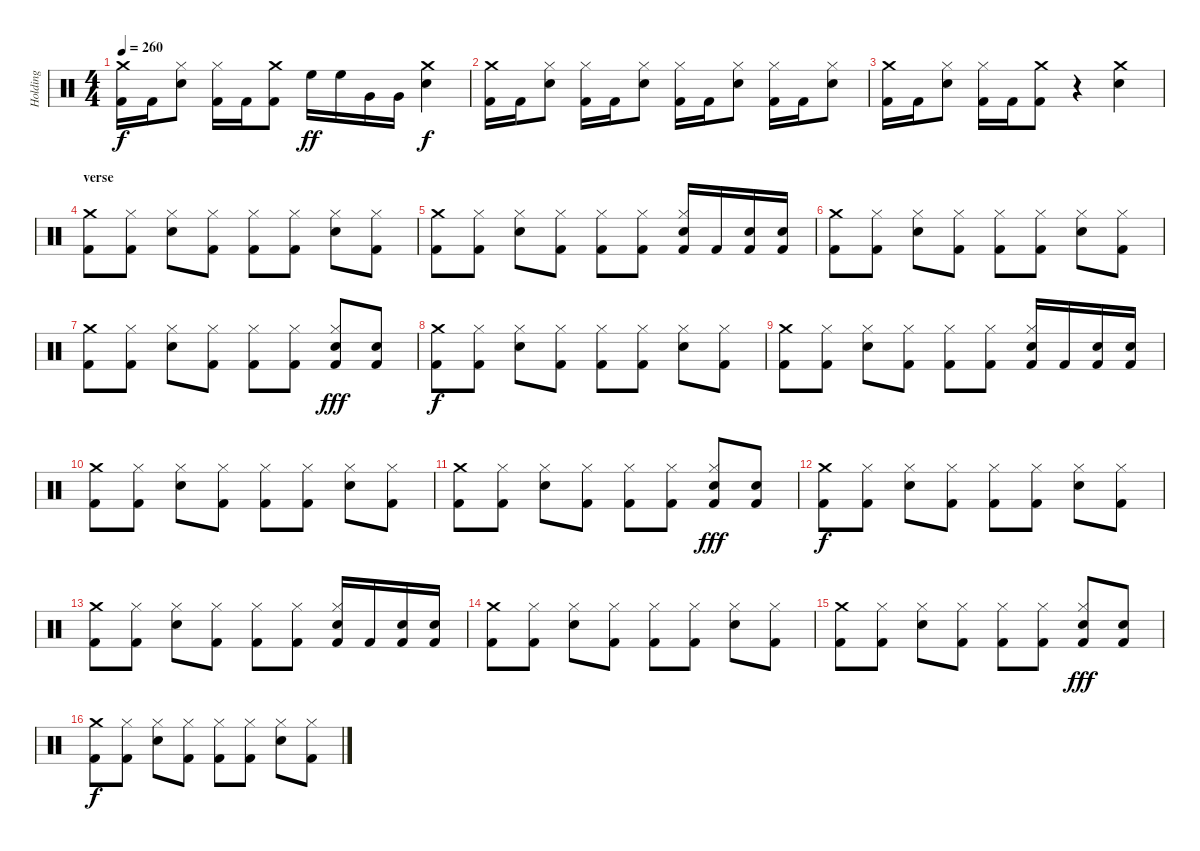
\track ("Holding" "Holding") {instrument percussion}
\staff {score}
\articulation defaults
\ts (4 4)
\tempo 260
\clef neutral
\ks c
("Crash medium (hit)" "Kick (hit) 2").16{dy f} "Kick (hit) 2".16 ("Hi-Hat (closed)" "Electric Snare (hit)").8 ("Hi-Hat (closed)" "Kick (hit) 2").16 "Kick (hit) 2".16 ("Crash medium (hit)" "Kick (hit) 2").8 "High Floor Tom (hit)".16{dy ff} "High Floor Tom (hit)".16 "Very Low Tom (hit)".16 "Very Low Tom (hit)".16 ("Crash medium (hit)" "Electric Snare (hit)").4{dy f} |
("Crash medium (hit)" "Kick (hit) 2").16 "Kick (hit) 2".16 ("Hi-Hat (closed)" "Electric Snare (hit)").8 ("Hi-Hat (closed)" "Kick (hit) 2").16 "Kick (hit) 2".16 ("Hi-Hat (closed)" "Electric Snare (hit)").8 ("Hi-Hat (closed)" "Kick (hit) 2").16 "Kick (hit) 2".16 ("Hi-Hat (closed)" "Electric Snare (hit)").8 ("Hi-Hat (closed)" "Kick (hit) 2").16 "Kick (hit) 2".16 ("Hi-Hat (closed)" "Electric Snare (hit)").8 |
("Crash medium (hit)" "Kick (hit) 2").16 "Kick (hit) 2".16 ("Hi-Hat (closed)" "Electric Snare (hit)").8 ("Hi-Hat (closed)" "Kick (hit) 2").16 "Kick (hit) 2".16 ("Crash medium (hit)" "Kick (hit) 2").8 r.4 ("Crash medium (hit)" "Electric Snare (hit)").4 |
\section ("" "verse")
("Crash medium (hit)" "Kick (hit) 2").8 ("Hi-Hat (closed)" "Kick (hit) 2").8 ("Hi-Hat (closed)" "Electric Snare (hit)").8 ("Hi-Hat (closed)" "Kick (hit) 2").8 ("Hi-Hat (closed)" "Kick (hit) 2").8 ("Hi-Hat (closed)" "Kick (hit) 2").8 ("Hi-Hat (closed)" "Electric Snare (hit)").8 ("Hi-Hat (closed)" "Kick (hit) 2").8 |
("Crash medium (hit)" "Kick (hit) 2").8 ("Hi-Hat (closed)" "Kick (hit) 2").8 ("Hi-Hat (closed)" "Electric Snare (hit)").8 ("Hi-Hat (closed)" "Kick (hit) 2").8 ("Hi-Hat (closed)" "Kick (hit) 2").8 ("Hi-Hat (closed)" "Kick (hit) 2").8 ("Hi-Hat (closed)" "Electric Snare (hit)" "Kick (hit) 2").16 "Kick (hit) 2".16 ("Electric Snare (hit)" "Kick (hit) 2").16 ("Electric Snare (hit)" "Kick (hit) 2").16 |
("Crash medium (hit)" "Kick (hit) 2").8 ("Hi-Hat (closed)" "Kick (hit) 2").8 ("Hi-Hat (closed)" "Electric Snare (hit)").8 ("Hi-Hat (closed)" "Kick (hit) 2").8 ("Hi-Hat (closed)" "Kick (hit) 2").8 ("Hi-Hat (closed)" "Kick (hit) 2").8 ("Hi-Hat (closed)" "Electric Snare (hit)").8 ("Hi-Hat (closed)" "Kick (hit) 2").8 |
("Crash medium (hit)" "Kick (hit) 2").8 ("Hi-Hat (closed)" "Kick (hit) 2").8 ("Hi-Hat (closed)" "Electric Snare (hit)").8 ("Hi-Hat (closed)" "Kick (hit) 2").8 ("Hi-Hat (closed)" "Kick (hit) 2").8 ("Hi-Hat (closed)" "Kick (hit) 2").8 ("Hi-Hat (closed)" "Electric Snare (hit)" "Kick (hit) 2").8{dy fff} ("Electric Snare (hit)" "Kick (hit) 2").8 |
("Crash medium (hit)" "Kick (hit) 2").8{dy f} ("Hi-Hat (closed)" "Kick (hit) 2").8 ("Hi-Hat (closed)" "Electric Snare (hit)").8 ("Hi-Hat (closed)" "Kick (hit) 2").8 ("Hi-Hat (closed)" "Kick (hit) 2").8 ("Hi-Hat (closed)" "Kick (hit) 2").8 ("Hi-Hat (closed)" "Electric Snare (hit)").8 ("Hi-Hat (closed)" "Kick (hit) 2").8 |
("Crash medium (hit)" "Kick (hit) 2").8 ("Hi-Hat (closed)" "Kick (hit) 2").8 ("Hi-Hat (closed)" "Electric Snare (hit)").8 ("Hi-Hat (closed)" "Kick (hit) 2").8 ("Hi-Hat (closed)" "Kick (hit) 2").8 ("Hi-Hat (closed)" "Kick (hit) 2").8 ("Hi-Hat (closed)" "Electric Snare (hit)" "Kick (hit) 2").16 "Kick (hit) 2".16 ("Electric Snare (hit)" "Kick (hit) 2").16 ("Electric Snare (hit)" "Kick (hit) 2").16 |
("Crash medium (hit)" "Kick (hit) 2").8 ("Hi-Hat (closed)" "Kick (hit) 2").8 ("Hi-Hat (closed)" "Electric Snare (hit)").8 ("Hi-Hat (closed)" "Kick (hit) 2").8 ("Hi-Hat (closed)" "Kick (hit) 2").8 ("Hi-Hat (closed)" "Kick (hit) 2").8 ("Hi-Hat (closed)" "Electric Snare (hit)").8 ("Hi-Hat (closed)" "Kick (hit) 2").8 |
("Crash medium (hit)" "Kick (hit) 2").8 ("Hi-Hat (closed)" "Kick (hit) 2").8 ("Hi-Hat (closed)" "Electric Snare (hit)").8 ("Hi-Hat (closed)" "Kick (hit) 2").8 ("Hi-Hat (closed)" "Kick (hit) 2").8 ("Hi-Hat (closed)" "Kick (hit) 2").8 ("Hi-Hat (closed)" "Electric Snare (hit)" "Kick (hit) 2").8{dy fff} ("Electric Snare (hit)" "Kick (hit) 2").8 |
("Crash medium (hit)" "Kick (hit) 2").8{dy f} ("Hi-Hat (closed)" "Kick (hit) 2").8 ("Hi-Hat (closed)" "Electric Snare (hit)").8 ("Hi-Hat (closed)" "Kick (hit) 2").8 ("Hi-Hat (closed)" "Kick (hit) 2").8 ("Hi-Hat (closed)" "Kick (hit) 2").8 ("Hi-Hat (closed)" "Electric Snare (hit)").8 ("Hi-Hat (closed)" "Kick (hit) 2").8 |
("Crash medium (hit)" "Kick (hit) 2").8 ("Hi-Hat (closed)" "Kick (hit) 2").8 ("Hi-Hat (closed)" "Electric Snare (hit)").8 ("Hi-Hat (closed)" "Kick (hit) 2").8 ("Hi-Hat (closed)" "Kick (hit) 2").8 ("Hi-Hat (closed)" "Kick (hit) 2").8 ("Hi-Hat (closed)" "Electric Snare (hit)" "Kick (hit) 2").16 "Kick (hit) 2".16 ("Electric Snare (hit)" "Kick (hit) 2").16 ("Electric Snare (hit)" "Kick (hit) 2").16 |
("Crash medium (hit)" "Kick (hit) 2").8 ("Hi-Hat (closed)" "Kick (hit) 2").8 ("Hi-Hat (closed)" "Electric Snare (hit)").8 ("Hi-Hat (closed)" "Kick (hit) 2").8 ("Hi-Hat (closed)" "Kick (hit) 2").8 ("Hi-Hat (closed)" "Kick (hit) 2").8 ("Hi-Hat (closed)" "Electric Snare (hit)").8 ("Hi-Hat (closed)" "Kick (hit) 2").8 |
("Crash medium (hit)" "Kick (hit) 2").8 ("Hi-Hat (closed)" "Kick (hit) 2").8 ("Hi-Hat (closed)" "Electric Snare (hit)").8 ("Hi-Hat (closed)" "Kick (hit) 2").8 ("Hi-Hat (closed)" "Kick (hit) 2").8 ("Hi-Hat (closed)" "Kick (hit) 2").8 ("Hi-Hat (closed)" "Electric Snare (hit)" "Kick (hit) 2").8{dy fff} ("Electric Snare (hit)" "Kick (hit) 2").8 |
("Crash medium (hit)" "Kick (hit) 2").8{dy f} ("Hi-Hat (closed)" "Kick (hit) 2").8 ("Hi-Hat (closed)" "Electric Snare (hit)").8 ("Hi-Hat (closed)" "Kick (hit) 2").8 ("Hi-Hat (closed)" "Kick (hit) 2").8 ("Hi-Hat (closed)" "Kick (hit) 2").8 ("Hi-Hat (closed)" "Electric Snare (hit)").8 ("Hi-Hat (closed)" "Kick (hit) 2").8
